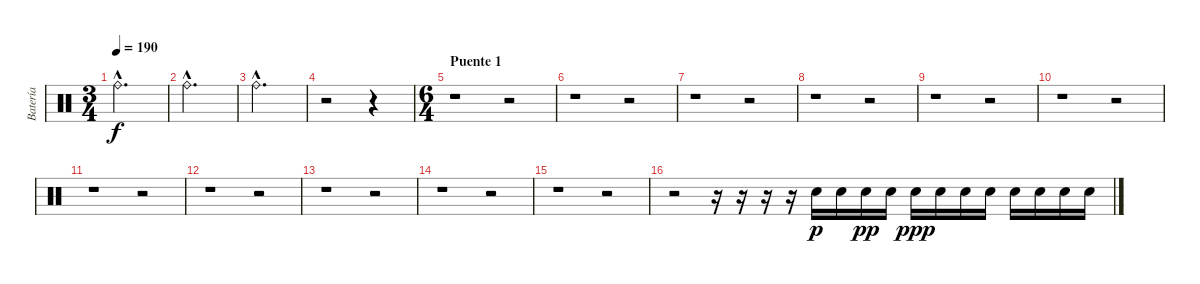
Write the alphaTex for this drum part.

\track ("Batería" "Batería") {instrument percussion}
\staff {score}
\articulation defaults
\ts (3 4)
\tempo 190
\clef neutral
\ks c "Ride (bell)"{hac}.2{d dy f}
|
"Ride (bell)"{hac}.2{d} |
"Ride (bell)"{hac}.2{d} |
r.2 r.4 |
\ts (6 4)
\section ("" "Puente 1")
r.1 r.2 |
r.1 r.2 |
r.1 r.2 |
r.1 r.2 |
r.1 r.2 |
r.1 r.2 |
r.1 r.2 |
r.1 r.2 |
r.1 r.2 |
r.1 r.2 |
r.1 r.2 |
r.2 r.16 r.16 r.16 r.16 "Snare (hit) 2".16{dy p} "Snare (hit) 2".16 "Snare (hit) 2".16{dy pp} "Snare (hit) 2".16 "Snare (hit) 2".16{dy ppp} "Snare (hit) 2".16 "Snare (hit) 2".16 "Snare (hit) 2".16 "Snare (hit) 2".16 "Snare (hit) 2".16 "Snare (hit) 2".16 "Snare (hit) 2".16
